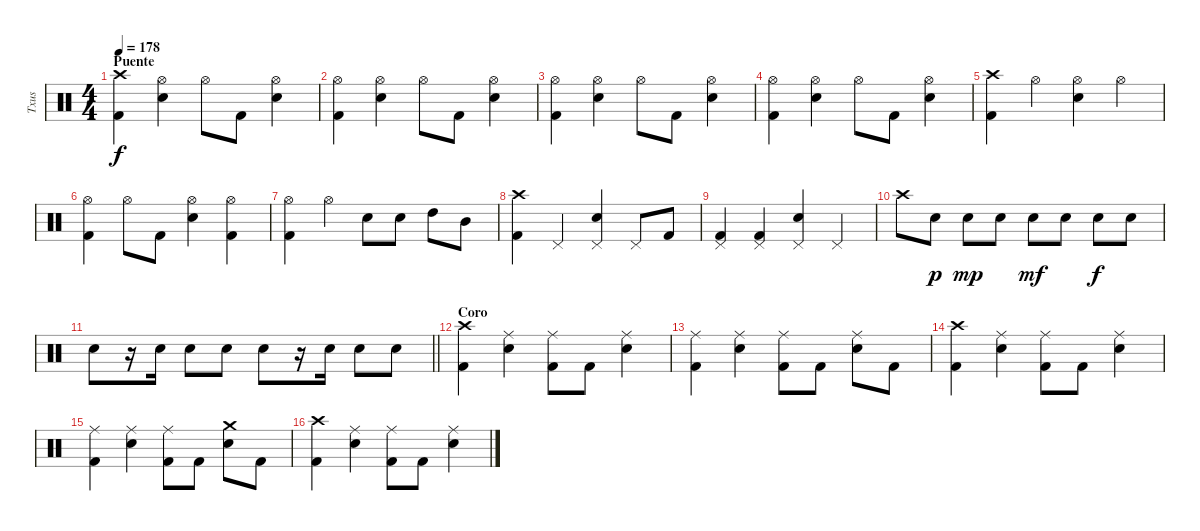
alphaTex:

\track ("Txus" "Txus") {instrument percussion}
\staff {score}
\articulation defaults
\ts (4 4)
\section ("" "Puente")
\tempo 178
\clef neutral
\ks c
("Crash high (hit)" "Kick (hit) 2").4{dy f} ("Hi-Hat (open)" "Electric Snare (hit)").4 "Hi-Hat (open)".8 "Kick (hit) 2".8 ("Hi-Hat (open)" "Electric Snare (hit)").4 |
("Hi-Hat (open)" "Kick (hit) 2").4 ("Hi-Hat (open)" "Electric Snare (hit)").4 "Hi-Hat (open)".8 "Kick (hit) 2".8 ("Hi-Hat (open)" "Electric Snare (hit)").4 |
("Hi-Hat (open)" "Kick (hit) 2").4 ("Hi-Hat (open)" "Electric Snare (hit)").4 "Hi-Hat (open)".8 "Kick (hit) 2".8 ("Hi-Hat (open)" "Electric Snare (hit)").4 |
("Hi-Hat (open)" "Kick (hit) 2").4 ("Hi-Hat (open)" "Electric Snare (hit)").4 "Hi-Hat (open)".8 "Kick (hit) 2".8 ("Hi-Hat (open)" "Electric Snare (hit)").4 |
("Crash high (hit)" "Kick (hit) 2").4 "Hi-Hat (open)".4 ("Hi-Hat (open)" "Electric Snare (hit)").4 "Hi-Hat (open)".4 |
("Hi-Hat (open)" "Kick (hit) 2").4 "Hi-Hat (open)".8 "Kick (hit) 2".8 ("Hi-Hat (open)" "Electric Snare (hit)").4 ("Hi-Hat (open)" "Kick (hit) 2").4 |
("Hi-Hat (open)" "Kick (hit) 2").4 "Hi-Hat (open)".4 "Electric Snare (hit)".8 "Electric Snare (hit)".8 "High Tom (hit)".8 "Mid Tom (hit)".8 |
("Crash high (hit)" "Kick (hit) 2").4 "Pedal Hi-Hat (hit)".4 ("Pedal Hi-Hat (hit)" "Electric Snare (hit)").4 "Pedal Hi-Hat (hit)".8 "Kick (hit) 2".8 |
("Pedal Hi-Hat (hit)" "Kick (hit) 2").4 ("Pedal Hi-Hat (hit)" "Kick (hit) 2").4 ("Pedal Hi-Hat (hit)" "Electric Snare (hit)").4 "Pedal Hi-Hat (hit)".4 |
"Crash high (hit)".8 "Electric Snare (hit)".8{dy p} "Electric Snare (hit)".8{dy mp} "Electric Snare (hit)".8 "Electric Snare (hit)".8{dy mf} "Electric Snare (hit)".8 "Electric Snare (hit)".8{dy f} "Electric Snare (hit)".8 |
\barLineRight lightlight "Electric Snare (hit)".8
r.16 "Electric Snare (hit)".16 "Electric Snare (hit)".8 "Electric Snare (hit)".8 "Electric Snare (hit)".8 r.16 "Electric Snare (hit)".16 "Electric Snare (hit)".8 "Electric Snare (hit)".8 |
\section ("" "Coro")
("Crash high (hit)" "Kick (hit) 2").4 ("Ride (middle)" "Electric Snare (hit)").4 ("Ride (middle)" "Kick (hit) 2").8 "Kick (hit) 2".8 ("Ride (middle)" "Electric Snare (hit)").4 |
("Ride (middle)" "Kick (hit) 2").4 ("Ride (middle)" "Electric Snare (hit)").4 ("Ride (middle)" "Kick (hit) 2").8 "Kick (hit) 2".8 ("Ride (middle)" "Electric Snare (hit)").8 "Kick (hit) 2".8 |
("Crash high (hit)" "Kick (hit) 2").4 ("Ride (middle)" "Electric Snare (hit)").4 ("Ride (middle)" "Kick (hit) 2").8 "Kick (hit) 2".8 ("Ride (middle)" "Electric Snare (hit)").4 |
("Ride (middle)" "Kick (hit) 2").4 ("Ride (middle)" "Electric Snare (hit)").4 ("Ride (middle)" "Kick (hit) 2").8 "Kick (hit) 2".8 ("Crash medium (hit)" "Electric Snare (hit)").8 "Kick (hit) 2".8 |
("Crash high (hit)" "Kick (hit) 2").4 ("Ride (middle)" "Electric Snare (hit)").4 ("Ride (middle)" "Kick (hit) 2").8 "Kick (hit) 2".8 ("Ride (middle)" "Electric Snare (hit)").4
